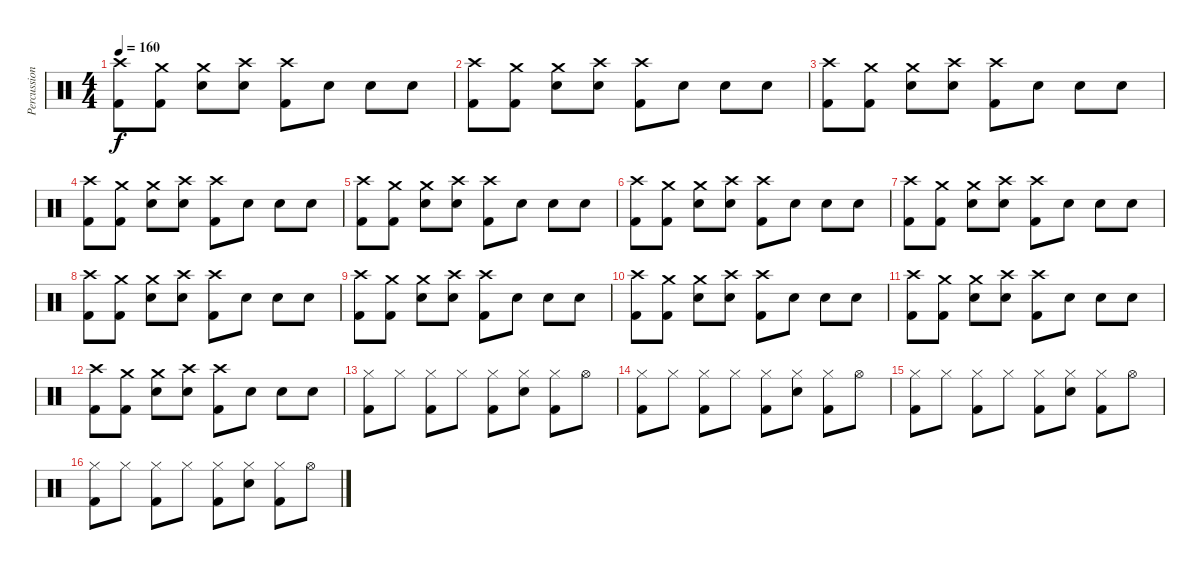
\track ("Percussion" "Percussion") {instrument percussion}
\staff {score}
\articulation defaults
\ts (4 4)
\tempo 160
\clef neutral
\ks c
("Crash high (hit)" "Kick (hit) 2").8{dy f} ("Crash medium (hit)" "Kick (hit) 2").8 ("Crash medium (hit)" "Snare (hit) 2").8 ("Crash high (hit)" "Snare (hit) 2").8 ("Crash high (hit)" "Kick (hit) 2").8 "Snare (hit) 2".8 "Snare (hit) 2".8 "Snare (hit) 2".8 |
("Crash high (hit)" "Kick (hit) 2").8 ("Crash medium (hit)" "Kick (hit) 2").8 ("Crash medium (hit)" "Snare (hit) 2").8 ("Crash high (hit)" "Snare (hit) 2").8 ("Crash high (hit)" "Kick (hit) 2").8 "Snare (hit) 2".8 "Snare (hit) 2".8 "Snare (hit) 2".8 |
("Crash high (hit)" "Kick (hit) 2").8 ("Crash medium (hit)" "Kick (hit) 2").8 ("Crash medium (hit)" "Snare (hit) 2").8 ("Crash high (hit)" "Snare (hit) 2").8 ("Crash high (hit)" "Kick (hit) 2").8 "Snare (hit) 2".8 "Snare (hit) 2".8 "Snare (hit) 2".8 |
("Crash high (hit)" "Kick (hit) 2").8 ("Crash medium (hit)" "Kick (hit) 2").8 ("Crash medium (hit)" "Snare (hit) 2").8 ("Crash high (hit)" "Snare (hit) 2").8 ("Crash high (hit)" "Kick (hit) 2").8 "Snare (hit) 2".8 "Snare (hit) 2".8 "Snare (hit) 2".8 |
("Crash high (hit)" "Kick (hit) 2").8 ("Crash medium (hit)" "Kick (hit) 2").8 ("Crash medium (hit)" "Snare (hit) 2").8 ("Crash high (hit)" "Snare (hit) 2").8 ("Crash high (hit)" "Kick (hit) 2").8 "Snare (hit) 2".8 "Snare (hit) 2".8 "Snare (hit) 2".8 |
("Crash high (hit)" "Kick (hit) 2").8 ("Crash medium (hit)" "Kick (hit) 2").8 ("Crash medium (hit)" "Snare (hit) 2").8 ("Crash high (hit)" "Snare (hit) 2").8 ("Crash high (hit)" "Kick (hit) 2").8 "Snare (hit) 2".8 "Snare (hit) 2".8 "Snare (hit) 2".8 |
("Crash high (hit)" "Kick (hit) 2").8 ("Crash medium (hit)" "Kick (hit) 2").8 ("Crash medium (hit)" "Snare (hit) 2").8 ("Crash high (hit)" "Snare (hit) 2").8 ("Crash high (hit)" "Kick (hit) 2").8 "Snare (hit) 2".8 "Snare (hit) 2".8 "Snare (hit) 2".8 |
("Crash high (hit)" "Kick (hit) 2").8 ("Crash medium (hit)" "Kick (hit) 2").8 ("Crash medium (hit)" "Snare (hit) 2").8 ("Crash high (hit)" "Snare (hit) 2").8 ("Crash high (hit)" "Kick (hit) 2").8 "Snare (hit) 2".8 "Snare (hit) 2".8 "Snare (hit) 2".8 |
("Crash high (hit)" "Kick (hit) 2").8 ("Crash medium (hit)" "Kick (hit) 2").8 ("Crash medium (hit)" "Snare (hit) 2").8 ("Crash high (hit)" "Snare (hit) 2").8 ("Crash high (hit)" "Kick (hit) 2").8 "Snare (hit) 2".8 "Snare (hit) 2".8 "Snare (hit) 2".8 |
("Crash high (hit)" "Kick (hit) 2").8 ("Crash medium (hit)" "Kick (hit) 2").8 ("Crash medium (hit)" "Snare (hit) 2").8 ("Crash high (hit)" "Snare (hit) 2").8 ("Crash high (hit)" "Kick (hit) 2").8 "Snare (hit) 2".8 "Snare (hit) 2".8 "Snare (hit) 2".8 |
("Crash high (hit)" "Kick (hit) 2").8 ("Crash medium (hit)" "Kick (hit) 2").8 ("Crash medium (hit)" "Snare (hit) 2").8 ("Crash high (hit)" "Snare (hit) 2").8 ("Crash high (hit)" "Kick (hit) 2").8 "Snare (hit) 2".8 "Snare (hit) 2".8 "Snare (hit) 2".8 |
("Crash high (hit)" "Kick (hit) 2").8 ("Crash medium (hit)" "Kick (hit) 2").8 ("Crash medium (hit)" "Snare (hit) 2").8 ("Crash high (hit)" "Snare (hit) 2").8 ("Crash high (hit)" "Kick (hit) 2").8 "Snare (hit) 2".8 "Snare (hit) 2".8 "Snare (hit) 2".8 |
("Hi-Hat (closed)" "Kick (hit) 2").8 "Hi-Hat (closed)".8 ("Hi-Hat (closed)" "Kick (hit) 2").8 "Hi-Hat (closed)".8 ("Hi-Hat (closed)" "Kick (hit) 2").8 ("Hi-Hat (closed)" "Snare (hit) 2").8 ("Hi-Hat (closed)" "Kick (hit) 2").8 "Hi-Hat (open)".8 |
("Hi-Hat (closed)" "Kick (hit) 2").8 "Hi-Hat (closed)".8 ("Hi-Hat (closed)" "Kick (hit) 2").8 "Hi-Hat (closed)".8 ("Hi-Hat (closed)" "Kick (hit) 2").8 ("Hi-Hat (closed)" "Snare (hit) 2").8 ("Hi-Hat (closed)" "Kick (hit) 2").8 "Hi-Hat (open)".8 |
("Hi-Hat (closed)" "Kick (hit) 2").8 "Hi-Hat (closed)".8 ("Hi-Hat (closed)" "Kick (hit) 2").8 "Hi-Hat (closed)".8 ("Hi-Hat (closed)" "Kick (hit) 2").8 ("Hi-Hat (closed)" "Snare (hit) 2").8 ("Hi-Hat (closed)" "Kick (hit) 2").8 "Hi-Hat (open)".8 |
("Hi-Hat (closed)" "Kick (hit) 2").8 "Hi-Hat (closed)".8 ("Hi-Hat (closed)" "Kick (hit) 2").8 "Hi-Hat (closed)".8 ("Hi-Hat (closed)" "Kick (hit) 2").8 ("Hi-Hat (closed)" "Snare (hit) 2").8 ("Hi-Hat (closed)" "Kick (hit) 2").8 "Hi-Hat (open)".8
